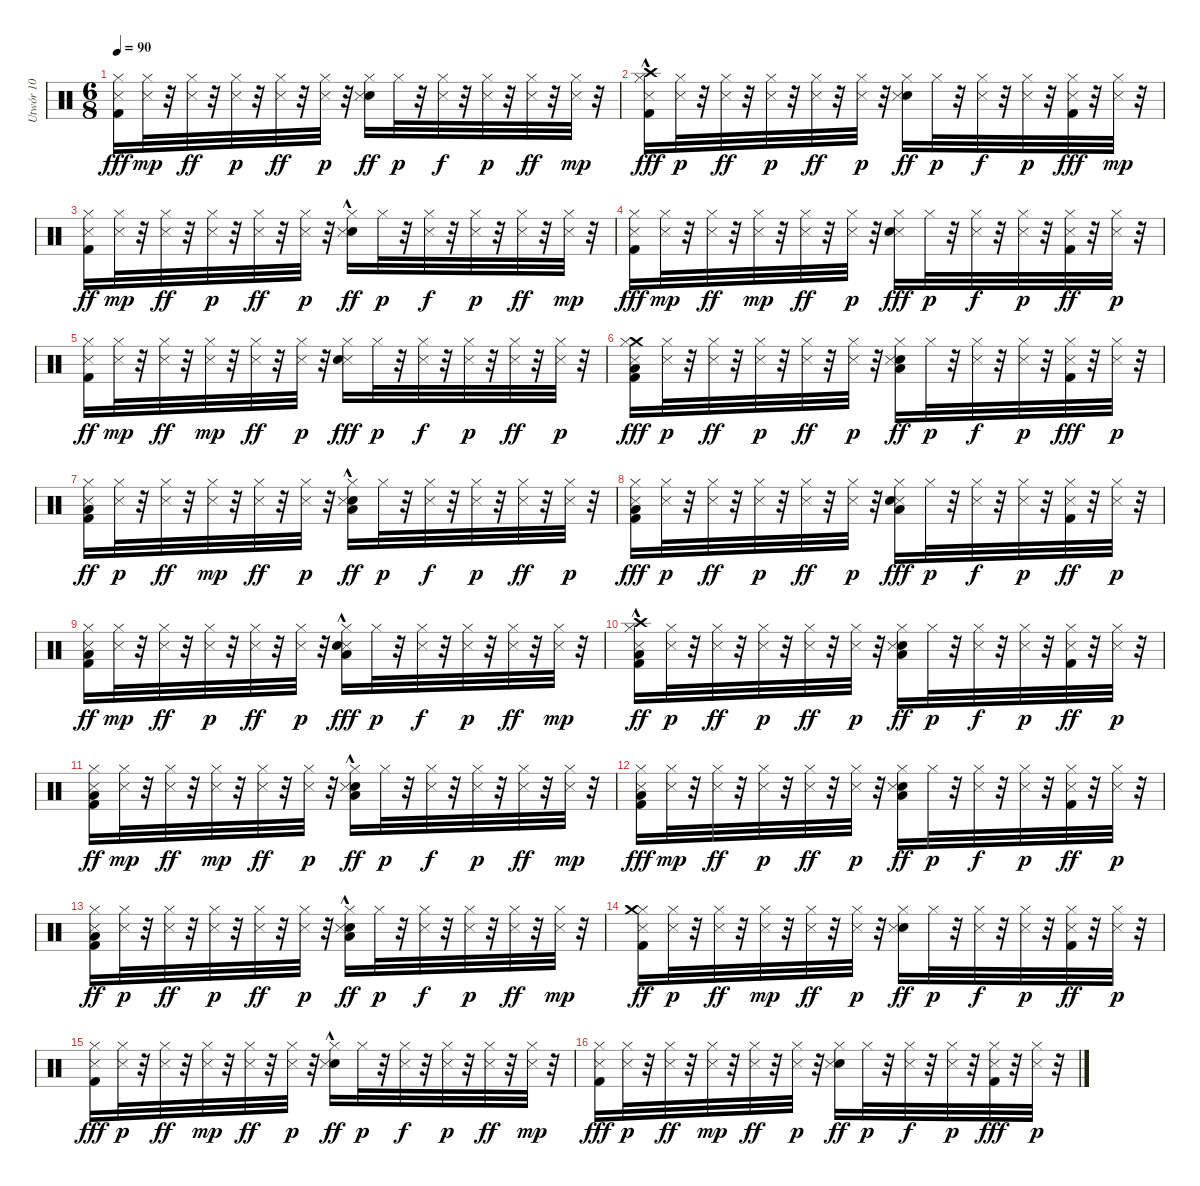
\track ("Utwór 10" "Utwór 10") {instrument percussion}
\staff {score}
\articulation defaults
\ts (6 8)
\tempo 90
\clef neutral
\ks c
("Snare (side stick) 3" "Hi-Hat (closed)" "Kick (hit) 2").16{dy fff} ("Hi-Hat (closed)" "Snare (side stick) 3").32{dy mp} r.32 ("Snare (side stick) 3" "Hi-Hat (closed)").32{dy ff} r.32 ("Snare (side stick) 3" "Hi-Hat (closed)").32{dy p} r.32 ("Hi-Hat (closed)" "Snare (side stick) 3").32{dy ff} r.32 ("Hi-Hat (closed)" "Snare (side stick) 3").32{dy p} r.32 ("Snare (hit) 2" "Snare (side stick) 3" "Hi-Hat (closed)").16{dy ff} "Hi-Hat (closed)".32{dy p} r.32 ("Snare (side stick) 3" "Hi-Hat (closed)").32{dy f} r.32 ("Hi-Hat (closed)" "Snare (side stick) 3").32{dy p} r.32 ("Snare (side stick) 3" "Hi-Hat (closed)").32{dy ff} r.32 ("Hi-Hat (closed)" "Snare (side stick) 3").32{dy mp} r.32 |
("Crash high (hit)"{hac} "Hi-Hat (closed)" "Snare (side stick) 3" "Kick (hit) 2").16{dy fff} ("Snare (side stick) 3" "Hi-Hat (closed)").32{dy p} r.32 ("Hi-Hat (closed)" "Snare (side stick) 3").32{dy ff} r.32 ("Snare (side stick) 3" "Hi-Hat (closed)").32{dy p} r.32 ("Hi-Hat (closed)" "Snare (side stick) 3").32{dy ff} r.32 ("Hi-Hat (closed)" "Snare (side stick) 3").32{dy p} r.32 ("Snare (hit) 2" "Snare (side stick) 3" "Hi-Hat (closed)").16{dy ff} "Hi-Hat (closed)".32{dy p} r.32 ("Hi-Hat (closed)" "Snare (side stick) 3").32{dy f} r.32 ("Snare (side stick) 3" "Hi-Hat (closed)").32{dy p} r.32 ("Snare (side stick) 3" "Hi-Hat (closed)" "Kick (hit) 2").32{dy fff} r.32 ("Hi-Hat (closed)" "Snare (side stick) 3").32{dy mp} r.32 |
("Snare (side stick) 3" "Kick (hit) 2" "Hi-Hat (closed)").16{dy ff} ("Hi-Hat (closed)" "Snare (side stick) 3").32{dy mp} r.32 ("Hi-Hat (closed)" "Snare (side stick) 3").32{dy ff} r.32 ("Snare (side stick) 3" "Hi-Hat (closed)").32{dy p} r.32 ("Snare (side stick) 3" "Hi-Hat (closed)").32{dy ff} r.32 ("Hi-Hat (closed)" "Snare (side stick) 3").32{dy p} r.32 ("Snare (hit) 2"{hac} "Snare (side stick) 3" "Hi-Hat (closed)").16{dy ff} "Hi-Hat (closed)".32{dy p} r.32 ("Hi-Hat (closed)" "Snare (side stick) 3").32{dy f} r.32 ("Snare (side stick) 3" "Hi-Hat (closed)").32{dy p} r.32 ("Snare (side stick) 3" "Hi-Hat (closed)").32{dy ff} r.32 ("Hi-Hat (closed)" "Snare (side stick) 3").32{dy mp} r.32 |
("Snare (side stick) 3" "Hi-Hat (closed)" "Kick (hit) 2").16{dy fff} ("Hi-Hat (closed)" "Snare (side stick) 3").32{dy mp} r.32 ("Snare (side stick) 3" "Hi-Hat (closed)").32{dy ff} r.32 ("Hi-Hat (closed)" "Snare (side stick) 3").32{dy mp} r.32 ("Hi-Hat (closed)" "Snare (side stick) 3").32{dy ff} r.32 ("Snare (side stick) 3" "Hi-Hat (closed)").32{dy p} r.32 ("Hi-Hat (closed)" "Snare (side stick) 3" "Snare (hit) 2").16{dy fff} "Hi-Hat (closed)".32{dy p} r.32 ("Snare (side stick) 3" "Hi-Hat (closed)").32{dy f} r.32 ("Snare (side stick) 3" "Hi-Hat (closed)").32{dy p} r.32 ("Kick (hit) 2" "Snare (side stick) 3" "Hi-Hat (closed)").32{dy ff} r.32 ("Snare (side stick) 3" "Hi-Hat (closed)").32{dy p} r.32 |
("Hi-Hat (closed)" "Kick (hit) 2" "Snare (side stick) 3").16{dy ff} ("Hi-Hat (closed)" "Snare (side stick) 3").32{dy mp} r.32 ("Hi-Hat (closed)" "Snare (side stick) 3").32{dy ff} r.32 ("Hi-Hat (closed)" "Snare (side stick) 3").32{dy mp} r.32 ("Snare (side stick) 3" "Hi-Hat (closed)").32{dy ff} r.32 ("Hi-Hat (closed)" "Snare (side stick) 3").32{dy p} r.32 ("Snare (side stick) 3" "Snare (hit) 2" "Hi-Hat (closed)").16{dy fff} "Hi-Hat (closed)".32{dy p} r.32 ("Hi-Hat (closed)" "Snare (side stick) 3").32{dy f} r.32 ("Hi-Hat (closed)" "Snare (side stick) 3").32{dy p} r.32 ("Hi-Hat (closed)" "Snare (side stick) 3").32{dy ff} r.32 ("Snare (side stick) 3" "Hi-Hat (closed)").32{dy p} r.32 |
("Snare (side stick) 3" "Crash medium (hit)" "Hi-Hat (closed)" "Low Floor Tom (hit)" "Kick (hit) 2").16{dy fff} ("Snare (side stick) 3" "Hi-Hat (closed)").32{dy p} r.32 ("Snare (side stick) 3" "Hi-Hat (closed)").32{dy ff} r.32 ("Snare (side stick) 3" "Hi-Hat (closed)").32{dy p} r.32 ("Hi-Hat (closed)" "Snare (side stick) 3").32{dy ff} r.32 ("Snare (side stick) 3" "Hi-Hat (closed)").32{dy p} r.32 ("Hi-Hat (closed)" "Snare (hit) 2" "Snare (side stick) 3" "Low Floor Tom (hit)").16{dy ff} "Hi-Hat (closed)".32{dy p} r.32 ("Snare (side stick) 3" "Hi-Hat (closed)").32{dy f} r.32 ("Snare (side stick) 3" "Hi-Hat (closed)").32{dy p} r.32 ("Hi-Hat (closed)" "Snare (side stick) 3" "Kick (hit) 2").32{dy fff} r.32 ("Snare (side stick) 3" "Hi-Hat (closed)").32{dy p} r.32 |
("Hi-Hat (closed)" "Snare (side stick) 3" "Kick (hit) 2" "Low Floor Tom (hit)").16{dy ff} ("Snare (side stick) 3" "Hi-Hat (closed)").32{dy p} r.32 ("Hi-Hat (closed)" "Snare (side stick) 3").32{dy ff} r.32 ("Hi-Hat (closed)" "Snare (side stick) 3").32{dy mp} r.32 ("Snare (side stick) 3" "Hi-Hat (closed)").32{dy ff} r.32 ("Snare (side stick) 3" "Hi-Hat (closed)").32{dy p} r.32 ("Snare (hit) 2"{hac} "Hi-Hat (closed)" "Low Floor Tom (hit)" "Snare (side stick) 3").16{dy ff} "Hi-Hat (closed)".32{dy p} r.32 ("Hi-Hat (closed)" "Snare (side stick) 3").32{dy f} r.32 ("Hi-Hat (closed)" "Snare (side stick) 3").32{dy p} r.32 ("Hi-Hat (closed)" "Snare (side stick) 3").32{dy ff} r.32 ("Snare (side stick) 3" "Hi-Hat (closed)").32{dy p} r.32 |
("Snare (side stick) 3" "Hi-Hat (closed)" "Low Floor Tom (hit)" "Kick (hit) 2").16{dy fff} ("Snare (side stick) 3" "Hi-Hat (closed)").32{dy p} r.32 ("Snare (side stick) 3" "Hi-Hat (closed)").32{dy ff} r.32 ("Snare (side stick) 3" "Hi-Hat (closed)").32{dy p} r.32 ("Hi-Hat (closed)" "Snare (side stick) 3").32{dy ff} r.32 ("Hi-Hat (closed)" "Snare (side stick) 3").32{dy p} r.32 ("Low Floor Tom (hit)" "Hi-Hat (closed)" "Snare (side stick) 3" "Snare (hit) 2").16{dy fff} "Hi-Hat (closed)".32{dy p} r.32 ("Hi-Hat (closed)" "Snare (side stick) 3").32{dy f} r.32 ("Hi-Hat (closed)" "Snare (side stick) 3").32{dy p} r.32 ("Kick (hit) 2" "Hi-Hat (closed)" "Snare (side stick) 3").32{dy ff} r.32 ("Snare (side stick) 3" "Hi-Hat (closed)").32{dy p} r.32 |
("Kick (hit) 2" "Snare (side stick) 3" "Low Floor Tom (hit)" "Hi-Hat (closed)").16{dy ff} ("Hi-Hat (closed)" "Snare (side stick) 3").32{dy mp} r.32 ("Hi-Hat (closed)" "Snare (side stick) 3").32{dy ff} r.32 ("Snare (side stick) 3" "Hi-Hat (closed)").32{dy p} r.32 ("Snare (side stick) 3" "Hi-Hat (closed)").32{dy ff} r.32 ("Hi-Hat (closed)" "Snare (side stick) 3").32{dy p} r.32 ("Low Floor Tom (hit)"{hac} "Snare (side stick) 3" "Hi-Hat (closed)" "Snare (hit) 2").16{dy fff} "Hi-Hat (closed)".32{dy p} r.32 ("Snare (side stick) 3" "Hi-Hat (closed)").32{dy f} r.32 ("Snare (side stick) 3" "Hi-Hat (closed)").32{dy p} r.32 ("Snare (side stick) 3" "Hi-Hat (closed)").32{dy ff} r.32 ("Hi-Hat (closed)" "Snare (side stick) 3").32{dy mp} r.32 |
("Snare (side stick) 3" "Kick (hit) 2" "Hi-Hat (closed)" "Low Floor Tom (hit)" "Crash high (hit)"{hac}).16{dy ff} ("Snare (side stick) 3" "Hi-Hat (closed)").32{dy p} r.32 ("Hi-Hat (closed)" "Snare (side stick) 3").32{dy ff} r.32 ("Snare (side stick) 3" "Hi-Hat (closed)").32{dy p} r.32 ("Hi-Hat (closed)" "Snare (side stick) 3").32{dy ff} r.32 ("Hi-Hat (closed)" "Snare (side stick) 3").32{dy p} r.32 ("Snare (hit) 2" "Low Floor Tom (hit)" "Hi-Hat (closed)" "Snare (side stick) 3").16{dy ff} "Hi-Hat (closed)".32{dy p} r.32 ("Hi-Hat (closed)" "Snare (side stick) 3").32{dy f} r.32 ("Snare (side stick) 3" "Hi-Hat (closed)").32{dy p} r.32 ("Kick (hit) 2" "Snare (side stick) 3" "Hi-Hat (closed)").32{dy ff} r.32 ("Snare (side stick) 3" "Hi-Hat (closed)").32{dy p} r.32 |
("Snare (side stick) 3" "Kick (hit) 2" "Hi-Hat (closed)" "Low Floor Tom (hit)").16{dy ff} ("Hi-Hat (closed)" "Snare (side stick) 3").32{dy mp} r.32 ("Snare (side stick) 3" "Hi-Hat (closed)").32{dy ff} r.32 ("Hi-Hat (closed)" "Snare (side stick) 3").32{dy mp} r.32 ("Hi-Hat (closed)" "Snare (side stick) 3").32{dy ff} r.32 ("Snare (side stick) 3" "Hi-Hat (closed)").32{dy p} r.32 ("Low Floor Tom (hit)" "Snare (hit) 2"{hac} "Snare (side stick) 3" "Hi-Hat (closed)").16{dy ff} "Hi-Hat (closed)".32{dy p} r.32 ("Snare (side stick) 3" "Hi-Hat (closed)").32{dy f} r.32 ("Snare (side stick) 3" "Hi-Hat (closed)").32{dy p} r.32 ("Snare (side stick) 3" "Hi-Hat (closed)").32{dy ff} r.32 ("Hi-Hat (closed)" "Snare (side stick) 3").32{dy mp} r.32 |
("Low Floor Tom (hit)" "Snare (side stick) 3" "Hi-Hat (closed)" "Kick (hit) 2").16{dy fff} ("Hi-Hat (closed)" "Snare (side stick) 3").32{dy mp} r.32 ("Snare (side stick) 3" "Hi-Hat (closed)").32{dy ff} r.32 ("Snare (side stick) 3" "Hi-Hat (closed)").32{dy p} r.32 ("Hi-Hat (closed)" "Snare (side stick) 3").32{dy ff} r.32 ("Hi-Hat (closed)" "Snare (side stick) 3").32{dy p} r.32 ("Snare (hit) 2" "Hi-Hat (closed)" "Snare (side stick) 3" "Low Floor Tom (hit)").16{dy ff} "Hi-Hat (closed)".32{dy p} r.32 ("Snare (side stick) 3" "Hi-Hat (closed)").32{dy f} r.32 ("Hi-Hat (closed)" "Snare (side stick) 3").32{dy p} r.32 ("Hi-Hat (closed)" "Kick (hit) 2" "Snare (side stick) 3").32{dy ff} r.32 ("Snare (side stick) 3" "Hi-Hat (closed)").32{dy p} r.32 |
("Kick (hit) 2" "Low Floor Tom (hit)" "Snare (side stick) 3" "Hi-Hat (closed)").16{dy ff} ("Snare (side stick) 3" "Hi-Hat (closed)").32{dy p} r.32 ("Snare (side stick) 3" "Hi-Hat (closed)").32{dy ff} r.32 ("Snare (side stick) 3" "Hi-Hat (closed)").32{dy p} r.32 ("Hi-Hat (closed)" "Snare (side stick) 3").32{dy ff} r.32 ("Snare (side stick) 3" "Hi-Hat (closed)").32{dy p} r.32 ("Snare (hit) 2" "Low Floor Tom (hit)"{hac} "Hi-Hat (closed)" "Snare (side stick) 3").16{dy ff} "Hi-Hat (closed)".32{dy p} r.32 ("Hi-Hat (closed)" "Snare (side stick) 3").32{dy f} r.32 ("Snare (side stick) 3" "Hi-Hat (closed)").32{dy p} r.32 ("Snare (side stick) 3" "Hi-Hat (closed)").32{dy ff} r.32 ("Hi-Hat (closed)" "Snare (side stick) 3").32{dy mp} r.32 |
("Hi-Hat (closed)" "Kick (hit) 2" "Crash medium (hit)" "Snare (side stick) 3").16{dy ff} ("Snare (side stick) 3" "Hi-Hat (closed)").32{dy p} r.32 ("Hi-Hat (closed)" "Snare (side stick) 3").32{dy ff} r.32 ("Hi-Hat (closed)" "Snare (side stick) 3").32{dy mp} r.32 ("Snare (side stick) 3" "Hi-Hat (closed)").32{dy ff} r.32 ("Hi-Hat (closed)" "Snare (side stick) 3").32{dy p} r.32 ("Hi-Hat (closed)" "Snare (hit) 2" "Snare (side stick) 3").16{dy ff} "Hi-Hat (closed)".32{dy p} r.32 ("Snare (side stick) 3" "Hi-Hat (closed)").32{dy f} r.32 ("Snare (side stick) 3" "Hi-Hat (closed)").32{dy p} r.32 ("Hi-Hat (closed)" "Kick (hit) 2" "Snare (side stick) 3").32{dy ff} r.32 ("Snare (side stick) 3" "Hi-Hat (closed)").32{dy p} r.32 |
("Hi-Hat (closed)" "Snare (side stick) 3" "Kick (hit) 2").16{dy fff} ("Snare (side stick) 3" "Hi-Hat (closed)").32{dy p} r.32 ("Snare (side stick) 3" "Hi-Hat (closed)").32{dy ff} r.32 ("Hi-Hat (closed)" "Snare (side stick) 3").32{dy mp} r.32 ("Snare (side stick) 3" "Hi-Hat (closed)").32{dy ff} r.32 ("Hi-Hat (closed)" "Snare (side stick) 3").32{dy p} r.32 ("Snare (hit) 2"{hac} "Hi-Hat (closed)" "Snare (side stick) 3").16{dy ff} "Hi-Hat (closed)".32{dy p} r.32 ("Hi-Hat (closed)" "Snare (side stick) 3").32{dy f} r.32 ("Hi-Hat (closed)" "Snare (side stick) 3").32{dy p} r.32 ("Hi-Hat (closed)" "Snare (side stick) 3").32{dy ff} r.32 ("Hi-Hat (closed)" "Snare (side stick) 3").32{dy mp} r.32 |
("Snare (side stick) 3" "Hi-Hat (closed)" "Kick (hit) 2").16{dy fff} ("Snare (side stick) 3" "Hi-Hat (closed)").32{dy p} r.32 ("Hi-Hat (closed)" "Snare (side stick) 3").32{dy ff} r.32 ("Hi-Hat (closed)" "Snare (side stick) 3").32{dy mp} r.32 ("Hi-Hat (closed)" "Snare (side stick) 3").32{dy ff} r.32 ("Hi-Hat (closed)" "Snare (side stick) 3").32{dy p} r.32 ("Snare (hit) 2" "Snare (side stick) 3" "Hi-Hat (closed)").16{dy ff} "Hi-Hat (closed)".32{dy p} r.32 ("Snare (side stick) 3" "Hi-Hat (closed)").32{dy f} r.32 ("Snare (side stick) 3" "Hi-Hat (closed)").32{dy p} r.32 ("Snare (side stick) 3" "Hi-Hat (closed)" "Kick (hit) 2").32{dy fff} r.32 ("Snare (side stick) 3" "Hi-Hat (closed)").32{dy p} r.32
